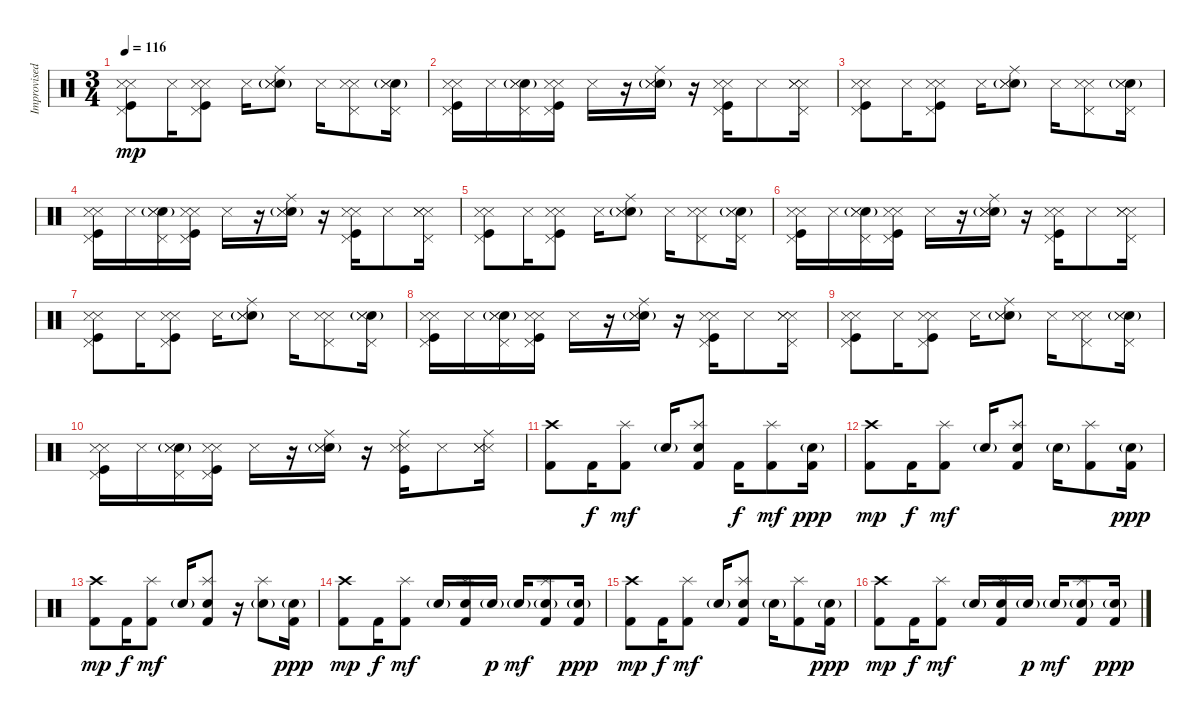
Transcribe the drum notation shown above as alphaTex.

\track ("Improvised Drums" "Improvised") {instrument percussion}
\staff {score}
\articulation defaults
\ts (3 4)
\tempo 116
\clef neutral
\ks c
("Metronome (hit)" "Kick (hit)" "Pedal Hi-Hat (hit)" "Snare (side stick) 3").8{dy mp} "Snare (side stick) 3".16 ("Metronome (hit)" "Kick (hit)" "Pedal Hi-Hat (hit)" "Snare (side stick) 3").8 "Snare (side stick) 3".16 ("Electric Snare (hit)"{g} "Metronome (hit)" "Ride (middle)" "Snare (side stick) 3").8 "Snare (side stick) 3".16 ("Metronome (hit)" "Pedal Hi-Hat (hit)" "Snare (side stick) 3").8 ("Electric Snare (hit)"{g} "Metronome (hit)" "Pedal Hi-Hat (hit)" "Snare (side stick) 3").16 |
("Metronome (hit)" "Kick (hit)" "Pedal Hi-Hat (hit)" "Snare (side stick) 3").16 "Snare (side stick) 3".16 ("Electric Snare (hit)"{g} "Metronome (hit)" "Pedal Hi-Hat (hit)" "Snare (side stick) 3").16 ("Kick (hit)" "Metronome (hit)" "Pedal Hi-Hat (hit)" "Snare (side stick) 3").16 "Snare (side stick) 3".16 r.16 ("Electric Snare (hit)"{g} "Metronome (hit)" "Ride (middle)" "Snare (side stick) 3").16 r.16 ("Kick (hit)" "Metronome (hit)" "Pedal Hi-Hat (hit)" "Snare (side stick) 3").16 "Snare (side stick) 3".8 ("Metronome (hit)" "Metronome (hit)" "Pedal Hi-Hat (hit)" "Snare (side stick) 3").16 |
("Metronome (hit)" "Kick (hit)" "Pedal Hi-Hat (hit)" "Snare (side stick) 3").8 "Snare (side stick) 3".16 ("Metronome (hit)" "Kick (hit)" "Pedal Hi-Hat (hit)" "Snare (side stick) 3").8 "Snare (side stick) 3".16 ("Electric Snare (hit)"{g} "Metronome (hit)" "Ride (middle)" "Snare (side stick) 3").8 "Snare (side stick) 3".16 ("Metronome (hit)" "Pedal Hi-Hat (hit)" "Snare (side stick) 3").8 ("Electric Snare (hit)"{g} "Metronome (hit)" "Pedal Hi-Hat (hit)" "Snare (side stick) 3").16 |
("Metronome (hit)" "Kick (hit)" "Pedal Hi-Hat (hit)" "Snare (side stick) 3").16 "Snare (side stick) 3".16 ("Electric Snare (hit)"{g} "Metronome (hit)" "Pedal Hi-Hat (hit)" "Snare (side stick) 3").16 ("Kick (hit)" "Metronome (hit)" "Pedal Hi-Hat (hit)" "Snare (side stick) 3").16 "Snare (side stick) 3".16 r.16 ("Electric Snare (hit)"{g} "Metronome (hit)" "Ride (middle)" "Snare (side stick) 3").16 r.16 ("Kick (hit)" "Metronome (hit)" "Pedal Hi-Hat (hit)" "Snare (side stick) 3").16 "Snare (side stick) 3".8 ("Metronome (hit)" "Metronome (hit)" "Pedal Hi-Hat (hit)" "Snare (side stick) 3").16 |
("Metronome (hit)" "Kick (hit)" "Pedal Hi-Hat (hit)" "Snare (side stick) 3").8 "Snare (side stick) 3".16 ("Metronome (hit)" "Kick (hit)" "Pedal Hi-Hat (hit)" "Snare (side stick) 3").8 "Snare (side stick) 3".16 ("Electric Snare (hit)"{g} "Metronome (hit)" "Ride (middle)" "Snare (side stick) 3").8 "Snare (side stick) 3".16 ("Metronome (hit)" "Pedal Hi-Hat (hit)" "Snare (side stick) 3").8 ("Electric Snare (hit)"{g} "Metronome (hit)" "Pedal Hi-Hat (hit)" "Snare (side stick) 3").16 |
("Metronome (hit)" "Kick (hit)" "Pedal Hi-Hat (hit)" "Snare (side stick) 3").16 "Snare (side stick) 3".16 ("Electric Snare (hit)"{g} "Metronome (hit)" "Pedal Hi-Hat (hit)" "Snare (side stick) 3").16 ("Kick (hit)" "Metronome (hit)" "Pedal Hi-Hat (hit)" "Snare (side stick) 3").16 "Snare (side stick) 3".16 r.16 ("Electric Snare (hit)"{g} "Metronome (hit)" "Ride (middle)" "Snare (side stick) 3").16 r.16 ("Kick (hit)" "Metronome (hit)" "Pedal Hi-Hat (hit)" "Snare (side stick) 3").16 "Snare (side stick) 3".8 ("Metronome (hit)" "Metronome (hit)" "Pedal Hi-Hat (hit)" "Snare (side stick) 3").16 |
("Metronome (hit)" "Kick (hit)" "Pedal Hi-Hat (hit)" "Snare (side stick) 3").8 "Snare (side stick) 3".16 ("Metronome (hit)" "Kick (hit)" "Pedal Hi-Hat (hit)" "Snare (side stick) 3").8 "Snare (side stick) 3".16 ("Electric Snare (hit)"{g} "Metronome (hit)" "Ride (middle)" "Snare (side stick) 3").8 "Snare (side stick) 3".16 ("Metronome (hit)" "Pedal Hi-Hat (hit)" "Snare (side stick) 3").8 ("Electric Snare (hit)"{g} "Metronome (hit)" "Pedal Hi-Hat (hit)" "Snare (side stick) 3").16 |
("Metronome (hit)" "Kick (hit)" "Pedal Hi-Hat (hit)" "Snare (side stick) 3").16 "Snare (side stick) 3".16 ("Electric Snare (hit)"{g} "Metronome (hit)" "Pedal Hi-Hat (hit)" "Snare (side stick) 3").16 ("Kick (hit)" "Metronome (hit)" "Pedal Hi-Hat (hit)" "Snare (side stick) 3").16 "Snare (side stick) 3".16 r.16 ("Electric Snare (hit)"{g} "Metronome (hit)" "Ride (middle)" "Snare (side stick) 3").16 r.16 ("Kick (hit)" "Metronome (hit)" "Pedal Hi-Hat (hit)" "Snare (side stick) 3").16 "Snare (side stick) 3".8 ("Metronome (hit)" "Metronome (hit)" "Pedal Hi-Hat (hit)" "Snare (side stick) 3").16 |
("Metronome (hit)" "Kick (hit)" "Pedal Hi-Hat (hit)" "Snare (side stick) 3").8 "Snare (side stick) 3".16 ("Metronome (hit)" "Kick (hit)" "Pedal Hi-Hat (hit)" "Snare (side stick) 3").8 "Snare (side stick) 3".16 ("Electric Snare (hit)"{g} "Metronome (hit)" "Ride (middle)" "Snare (side stick) 3").8 "Snare (side stick) 3".16 ("Metronome (hit)" "Pedal Hi-Hat (hit)" "Snare (side stick) 3").8 ("Electric Snare (hit)"{g} "Metronome (hit)" "Pedal Hi-Hat (hit)" "Snare (side stick) 3").16 |
("Metronome (hit)" "Kick (hit)" "Pedal Hi-Hat (hit)" "Snare (side stick) 3").16 "Snare (side stick) 3".16 ("Electric Snare (hit)"{g} "Metronome (hit)" "Pedal Hi-Hat (hit)" "Snare (side stick) 3").16 ("Kick (hit)" "Metronome (hit)" "Pedal Hi-Hat (hit)" "Snare (side stick) 3").16 "Snare (side stick) 3".16 r.16 ("Electric Snare (hit)"{g} "Metronome (hit)" "Ride (middle)" "Snare (side stick) 3").16 r.16 ("Kick (hit)" "Metronome (hit)" "Ride (middle)" "Snare (side stick) 3").16 "Snare (side stick) 3".8 ("Metronome (hit)" "Metronome (hit)" "Ride (middle)" "Snare (side stick) 3").16 |
("Kick (hit) 2" "Crash high (hit)").8 "Kick (hit) 2".16{dy f} ("Kick (hit) 2" "Splash (hit)").8{dy mf} "Snare (hit) 2"{g}.16 ("Kick (hit) 2" "Snare (hit) 2" "Splash (hit)").8 "Kick (hit) 2".16{dy f} ("Kick (hit) 2" "Splash (hit)").8{dy mf} ("Kick (hit) 2" "Electric Snare (hit)"{g}).16{dy ppp} |
("Kick (hit) 2" "Crash high (hit)").8{dy mp} "Kick (hit) 2".16{dy f} ("Kick (hit) 2" "Splash (hit)").8{dy mf} "Snare (hit) 2"{g}.16 ("Kick (hit) 2" "Snare (hit) 2" "Splash (hit)").8 "Snare (hit) 2"{g}.16 ("Kick (hit) 2" "Splash (hit)").8 ("Kick (hit) 2" "Electric Snare (hit)"{g}).16{dy ppp} |
("Kick (hit) 2" "Crash high (hit)").8{dy mp} "Kick (hit) 2".16{dy f} ("Kick (hit) 2" "Splash (hit)").8{dy mf} "Snare (hit) 2"{g}.16 ("Kick (hit) 2" "Snare (hit) 2" "Splash (hit)").8 r.16 ("Snare (hit) 2"{g} "Splash (hit)").8 ("Kick (hit) 2" "Electric Snare (hit)"{g}).16{dy ppp} |
("Kick (hit) 2" "Crash high (hit)").8{dy mp} "Kick (hit) 2".16{dy f} ("Kick (hit) 2" "Splash (hit)").8{dy mf} "Snare (hit) 2"{g}.16 ("Kick (hit) 2" "Snare (hit) 2" "Splash (hit)").16 "Snare (hit) 2"{g}.16{dy p} "Snare (hit) 2"{g}.16{dy mf} ("Kick (hit) 2" "Snare (hit) 2"{g} "Splash (hit)").8 ("Kick (hit) 2" "Electric Snare (hit)"{g}).16{dy ppp} |
("Kick (hit) 2" "Crash high (hit)").8{dy mp} "Kick (hit) 2".16{dy f} ("Kick (hit) 2" "Splash (hit)").8{dy mf} "Snare (hit) 2"{g}.16 ("Kick (hit) 2" "Snare (hit) 2" "Splash (hit)").8 "Snare (hit) 2"{g}.16 ("Kick (hit) 2" "Splash (hit)").8 ("Kick (hit) 2" "Electric Snare (hit)"{g}).16{dy ppp} |
("Kick (hit) 2" "Crash high (hit)").8{dy mp} "Kick (hit) 2".16{dy f} ("Kick (hit) 2" "Splash (hit)").8{dy mf} "Snare (hit) 2"{g}.16 ("Kick (hit) 2" "Snare (hit) 2" "Splash (hit)").16 "Snare (hit) 2"{g}.16{dy p} "Snare (hit) 2"{g}.16{dy mf} ("Kick (hit) 2" "Snare (hit) 2"{g} "Splash (hit)").8 ("Kick (hit) 2" "Electric Snare (hit)"{g}).16{dy ppp}
